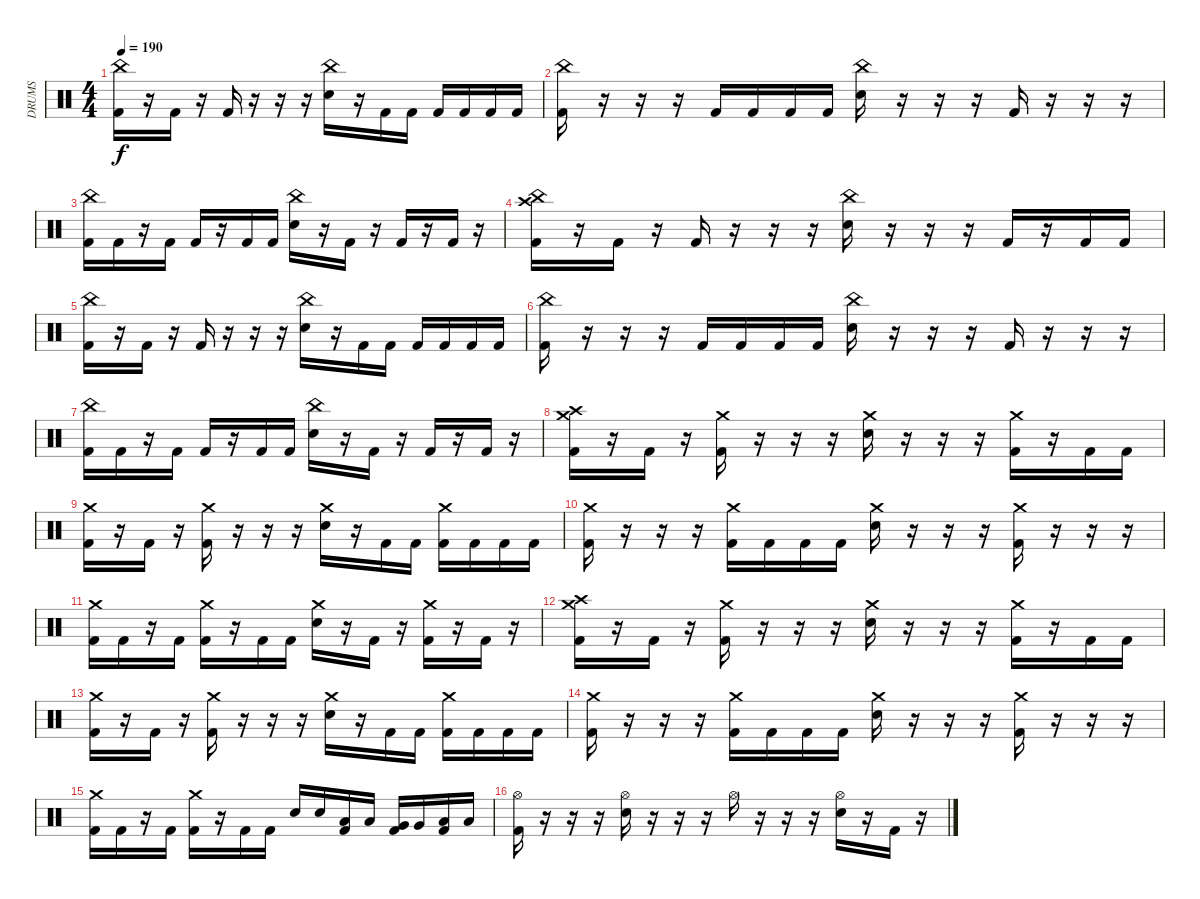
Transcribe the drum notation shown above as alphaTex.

\track ("DRUMS" "DRUMS") {instrument percussion}
\staff {score}
\articulation defaults
\ts (4 4)
\tempo 190
\clef neutral
\ks c
("China (hit)" "Kick (hit) 2").16{dy f} r.16 "Kick (hit) 2".16 r.16 "Kick (hit) 2".16 r.16 r.16 r.16 ("China (hit)" "Electric Snare (hit)").16 r.16 "Kick (hit) 2".16 "Kick (hit) 2".16 "Kick (hit) 2".16 "Kick (hit) 2".16 "Kick (hit) 2".16 "Kick (hit) 2".16 |
("China (hit)" "Kick (hit) 2").16 r.16 r.16 r.16 "Kick (hit) 2".16 "Kick (hit) 2".16 "Kick (hit) 2".16 "Kick (hit) 2".16 ("China (hit)" "Electric Snare (hit)").16 r.16 r.16 r.16 "Kick (hit) 2".16 r.16 r.16 r.16 |
("China (hit)" "Kick (hit) 2").16 "Kick (hit) 2".16 r.16 "Kick (hit) 2".16 "Kick (hit) 2".16 r.16 "Kick (hit) 2".16 "Kick (hit) 2".16 ("China (hit)" "Electric Snare (hit)").16 r.16 "Kick (hit) 2".16 r.16 "Kick (hit) 2".16 r.16 "Kick (hit) 2".16 r.16 |
("China (hit)" "Crash high (hit)" "Kick (hit) 2").16 r.16 "Kick (hit) 2".16 r.16 "Kick (hit) 2".16 r.16 r.16 r.16 ("China (hit)" "Electric Snare (hit)").16 r.16 r.16 r.16 "Kick (hit) 2".16 r.16 "Kick (hit) 2".16 "Kick (hit) 2".16 |
("China (hit)" "Kick (hit) 2").16 r.16 "Kick (hit) 2".16 r.16 "Kick (hit) 2".16 r.16 r.16 r.16 ("China (hit)" "Electric Snare (hit)").16 r.16 "Kick (hit) 2".16 "Kick (hit) 2".16 "Kick (hit) 2".16 "Kick (hit) 2".16 "Kick (hit) 2".16 "Kick (hit) 2".16 |
("China (hit)" "Kick (hit) 2").16 r.16 r.16 r.16 "Kick (hit) 2".16 "Kick (hit) 2".16 "Kick (hit) 2".16 "Kick (hit) 2".16 ("China (hit)" "Electric Snare (hit)").16 r.16 r.16 r.16 "Kick (hit) 2".16 r.16 r.16 r.16 |
("China (hit)" "Kick (hit) 2").16 "Kick (hit) 2".16 r.16 "Kick (hit) 2".16 "Kick (hit) 2".16 r.16 "Kick (hit) 2".16 "Kick (hit) 2".16 ("China (hit)" "Electric Snare (hit)").16 r.16 "Kick (hit) 2".16 r.16 "Kick (hit) 2".16 r.16 "Kick (hit) 2".16 r.16 |
("Crash medium (hit)" "Crash high (hit)" "Kick (hit) 2").16 r.16 "Kick (hit) 2".16 r.16 ("Crash medium (hit)" "Kick (hit) 2").16 r.16 r.16 r.16 ("Crash medium (hit)" "Electric Snare (hit)").16 r.16 r.16 r.16 ("Crash medium (hit)" "Kick (hit) 2").16 r.16 "Kick (hit) 2".16 "Kick (hit) 2".16 |
("Crash medium (hit)" "Kick (hit) 2").16 r.16 "Kick (hit) 2".16 r.16 ("Crash medium (hit)" "Kick (hit) 2").16 r.16 r.16 r.16 ("Crash medium (hit)" "Electric Snare (hit)").16 r.16 "Kick (hit) 2".16 "Kick (hit) 2".16 ("Crash medium (hit)" "Kick (hit) 2").16 "Kick (hit) 2".16 "Kick (hit) 2".16 "Kick (hit) 2".16 |
("Crash medium (hit)" "Kick (hit) 2").16 r.16 r.16 r.16 ("Crash medium (hit)" "Kick (hit) 2").16 "Kick (hit) 2".16 "Kick (hit) 2".16 "Kick (hit) 2".16 ("Crash medium (hit)" "Electric Snare (hit)").16 r.16 r.16 r.16 ("Crash medium (hit)" "Kick (hit) 2").16 r.16 r.16 r.16 |
("Crash medium (hit)" "Kick (hit) 2").16 "Kick (hit) 2".16 r.16 "Kick (hit) 2".16 ("Crash medium (hit)" "Kick (hit) 2").16 r.16 "Kick (hit) 2".16 "Kick (hit) 2".16 ("Crash medium (hit)" "Electric Snare (hit)").16 r.16 "Kick (hit) 2".16 r.16 ("Crash medium (hit)" "Kick (hit) 2").16 r.16 "Kick (hit) 2".16 r.16 |
("Crash medium (hit)" "Crash high (hit)" "Kick (hit) 2").16 r.16 "Kick (hit) 2".16 r.16 ("Crash medium (hit)" "Kick (hit) 2").16 r.16 r.16 r.16 ("Crash medium (hit)" "Electric Snare (hit)").16 r.16 r.16 r.16 ("Crash medium (hit)" "Kick (hit) 2").16 r.16 "Kick (hit) 2".16 "Kick (hit) 2".16 |
("Crash medium (hit)" "Kick (hit) 2").16 r.16 "Kick (hit) 2".16 r.16 ("Crash medium (hit)" "Kick (hit) 2").16 r.16 r.16 r.16 ("Crash medium (hit)" "Electric Snare (hit)").16 r.16 "Kick (hit) 2".16 "Kick (hit) 2".16 ("Crash medium (hit)" "Kick (hit) 2").16 "Kick (hit) 2".16 "Kick (hit) 2".16 "Kick (hit) 2".16 |
("Crash medium (hit)" "Kick (hit) 2").16 r.16 r.16 r.16 ("Crash medium (hit)" "Kick (hit) 2").16 "Kick (hit) 2".16 "Kick (hit) 2".16 "Kick (hit) 2".16 ("Crash medium (hit)" "Electric Snare (hit)").16 r.16 r.16 r.16 ("Crash medium (hit)" "Kick (hit) 2").16 r.16 r.16 r.16 |
("Crash medium (hit)" "Kick (hit) 2").16 "Kick (hit) 2".16 r.16 "Kick (hit) 2".16 ("Crash medium (hit)" "Kick (hit) 2").16 r.16 "Kick (hit) 2".16 "Kick (hit) 2".16 "Electric Snare (hit)".16 "Electric Snare (hit)".16 ("Low Tom (hit)" "Kick (hit) 2").16 "Low Tom (hit)".16 ("Very Low Tom (hit)" "Kick (hit) 2").16 "Very Low Tom (hit)".16 ("Low Floor Tom (hit)" "Kick (hit) 2").16 "Low Floor Tom (hit)".16 |
("Hi-Hat (open)" "Kick (hit) 2").16 r.16 r.16 r.16 ("Hi-Hat (open)" "Electric Snare (hit)").16 r.16 r.16 r.16 "Hi-Hat (open)".16 r.16 r.16 r.16 ("Hi-Hat (open)" "Electric Snare (hit)").16 r.16 "Kick (hit) 2".16 r.16
